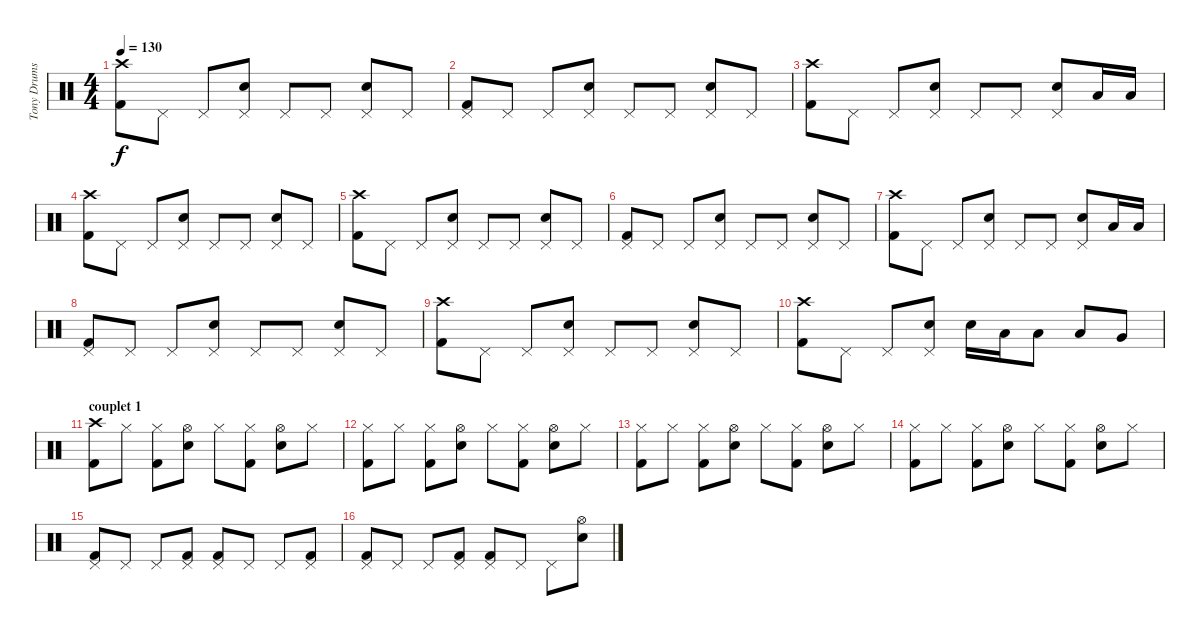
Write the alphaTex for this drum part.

\track ("Tony Drums" "Tony Drums") {instrument percussion}
\staff {score}
\articulation defaults
\ts (4 4)
\tempo 130
\clef neutral
\ks c
("Crash high (hit)" "Kick (hit) 2").8{dy f} "Pedal Hi-Hat (hit)".8 "Pedal Hi-Hat (hit)".8 ("Pedal Hi-Hat (hit)" "Snare (hit) 2").8 "Pedal Hi-Hat (hit)".8 "Pedal Hi-Hat (hit)".8 ("Pedal Hi-Hat (hit)" "Snare (hit) 2").8 "Pedal Hi-Hat (hit)".8 |
("Pedal Hi-Hat (hit)" "Kick (hit) 2").8 "Pedal Hi-Hat (hit)".8 "Pedal Hi-Hat (hit)".8 ("Pedal Hi-Hat (hit)" "Snare (hit) 2").8 "Pedal Hi-Hat (hit)".8 "Pedal Hi-Hat (hit)".8 ("Pedal Hi-Hat (hit)" "Snare (hit) 2").8 "Pedal Hi-Hat (hit)".8 |
("Crash high (hit)" "Kick (hit) 2").8 "Pedal Hi-Hat (hit)".8 "Pedal Hi-Hat (hit)".8 ("Pedal Hi-Hat (hit)" "Snare (hit) 2").8 "Pedal Hi-Hat (hit)".8 "Pedal Hi-Hat (hit)".8 ("Pedal Hi-Hat (hit)" "Snare (hit) 2").8 "Low Tom (hit)".16 "Low Tom (hit)".16 |
("Crash high (hit)" "Kick (hit) 2").8 "Pedal Hi-Hat (hit)".8 "Pedal Hi-Hat (hit)".8 ("Pedal Hi-Hat (hit)" "Snare (hit) 2").8 "Pedal Hi-Hat (hit)".8 "Pedal Hi-Hat (hit)".8 ("Pedal Hi-Hat (hit)" "Snare (hit) 2").8 "Pedal Hi-Hat (hit)".8 |
("Crash high (hit)" "Kick (hit) 2").8 "Pedal Hi-Hat (hit)".8 "Pedal Hi-Hat (hit)".8 ("Pedal Hi-Hat (hit)" "Snare (hit) 2").8 "Pedal Hi-Hat (hit)".8 "Pedal Hi-Hat (hit)".8 ("Pedal Hi-Hat (hit)" "Snare (hit) 2").8 "Pedal Hi-Hat (hit)".8 |
("Pedal Hi-Hat (hit)" "Kick (hit) 2").8 "Pedal Hi-Hat (hit)".8 "Pedal Hi-Hat (hit)".8 ("Pedal Hi-Hat (hit)" "Snare (hit) 2").8 "Pedal Hi-Hat (hit)".8 "Pedal Hi-Hat (hit)".8 ("Pedal Hi-Hat (hit)" "Snare (hit) 2").8 "Pedal Hi-Hat (hit)".8 |
("Crash high (hit)" "Kick (hit) 2").8 "Pedal Hi-Hat (hit)".8 "Pedal Hi-Hat (hit)".8 ("Pedal Hi-Hat (hit)" "Snare (hit) 2").8 "Pedal Hi-Hat (hit)".8 "Pedal Hi-Hat (hit)".8 ("Pedal Hi-Hat (hit)" "Snare (hit) 2").8 "Low Tom (hit)".16 "Low Tom (hit)".16 |
("Pedal Hi-Hat (hit)" "Kick (hit) 2").8 "Pedal Hi-Hat (hit)".8 "Pedal Hi-Hat (hit)".8 ("Pedal Hi-Hat (hit)" "Snare (hit) 2").8 "Pedal Hi-Hat (hit)".8 "Pedal Hi-Hat (hit)".8 ("Pedal Hi-Hat (hit)" "Snare (hit) 2").8 "Pedal Hi-Hat (hit)".8 |
("Crash high (hit)" "Kick (hit) 2").8 "Pedal Hi-Hat (hit)".8 "Pedal Hi-Hat (hit)".8 ("Pedal Hi-Hat (hit)" "Snare (hit) 2").8 "Pedal Hi-Hat (hit)".8 "Pedal Hi-Hat (hit)".8 ("Pedal Hi-Hat (hit)" "Snare (hit) 2").8 "Pedal Hi-Hat (hit)".8 |
("Crash high (hit)" "Kick (hit) 2").8 "Pedal Hi-Hat (hit)".8 "Pedal Hi-Hat (hit)".8 ("Pedal Hi-Hat (hit)" "Snare (hit) 2").8 "Snare (hit) 2".16 "Low Tom (hit)".16 "Low Tom (hit)".8 "Low Tom (hit)".8 "Very Low Tom (hit)".8 |
\section ("" "couplet 1")
("Crash high (hit)" "Kick (hit) 2").8 "Hi-Hat (closed)".8 ("Hi-Hat (closed)" "Kick (hit) 2").8 ("Hi-Hat (open)" "Snare (hit) 2").8 "Hi-Hat (closed)".8 ("Hi-Hat (closed)" "Kick (hit) 2").8 ("Hi-Hat (open)" "Snare (hit) 2").8 "Hi-Hat (closed)".8 |
("Hi-Hat (closed)" "Kick (hit) 2").8 "Hi-Hat (closed)".8 ("Hi-Hat (closed)" "Kick (hit) 2").8 ("Hi-Hat (open)" "Snare (hit) 2").8 "Hi-Hat (closed)".8 ("Hi-Hat (closed)" "Kick (hit) 2").8 ("Hi-Hat (open)" "Snare (hit) 2").8 "Hi-Hat (closed)".8 |
("Hi-Hat (closed)" "Kick (hit) 2").8 "Hi-Hat (closed)".8 ("Hi-Hat (closed)" "Kick (hit) 2").8 ("Hi-Hat (open)" "Snare (hit) 2").8 "Hi-Hat (closed)".8 ("Hi-Hat (closed)" "Kick (hit) 2").8 ("Hi-Hat (open)" "Snare (hit) 2").8 "Hi-Hat (closed)".8 |
("Hi-Hat (closed)" "Kick (hit) 2").8 "Hi-Hat (closed)".8 ("Hi-Hat (closed)" "Kick (hit) 2").8 ("Hi-Hat (open)" "Snare (hit) 2").8 "Hi-Hat (closed)".8 ("Hi-Hat (closed)" "Kick (hit) 2").8 ("Hi-Hat (open)" "Snare (hit) 2").8 "Hi-Hat (closed)".8 |
("Pedal Hi-Hat (hit)" "Kick (hit) 2").8 "Pedal Hi-Hat (hit)".8 "Pedal Hi-Hat (hit)".8 ("Pedal Hi-Hat (hit)" "Kick (hit) 2").8 ("Pedal Hi-Hat (hit)" "Kick (hit) 2").8 "Pedal Hi-Hat (hit)".8 "Pedal Hi-Hat (hit)".8 ("Pedal Hi-Hat (hit)" "Kick (hit) 2").8 |
("Pedal Hi-Hat (hit)" "Kick (hit) 2").8 "Pedal Hi-Hat (hit)".8 "Pedal Hi-Hat (hit)".8 ("Pedal Hi-Hat (hit)" "Kick (hit) 2").8 ("Pedal Hi-Hat (hit)" "Kick (hit) 2").8 "Pedal Hi-Hat (hit)".8 "Pedal Hi-Hat (hit)".8 ("Hi-Hat (open)" "Snare (hit) 2").8
